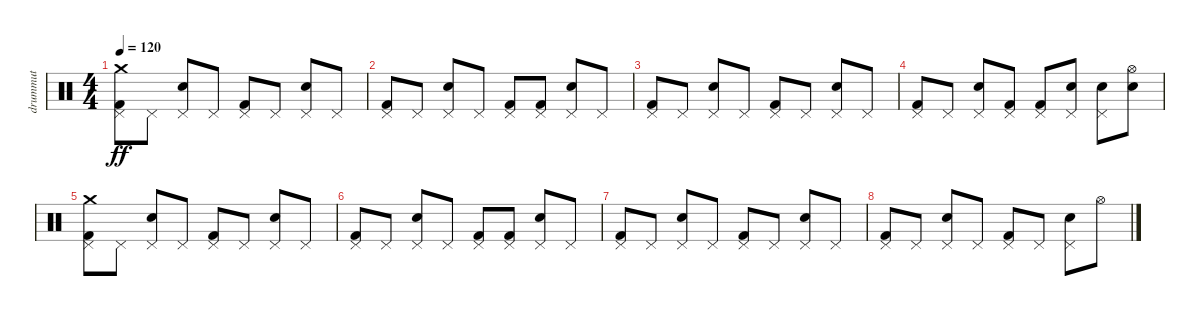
\track ("drummut" "drummut") {instrument percussion}
\staff {score}
\articulation defaults
\ts (4 4)
\tempo 120
\clef neutral
\ks c
("Kick (hit) 2" "Pedal Hi-Hat (hit)" "Crash medium (hit)").8{dy ff} "Pedal Hi-Hat (hit)".8 ("Electric Snare (hit)" "Pedal Hi-Hat (hit)").8 "Pedal Hi-Hat (hit)".8 ("Kick (hit) 2" "Pedal Hi-Hat (hit)").8 "Pedal Hi-Hat (hit)".8 ("Electric Snare (hit)" "Pedal Hi-Hat (hit)").8 "Pedal Hi-Hat (hit)".8 |
("Kick (hit) 2" "Pedal Hi-Hat (hit)").8 "Pedal Hi-Hat (hit)".8 ("Electric Snare (hit)" "Pedal Hi-Hat (hit)").8 "Pedal Hi-Hat (hit)".8 ("Kick (hit) 2" "Pedal Hi-Hat (hit)").8 ("Kick (hit) 2" "Pedal Hi-Hat (hit)").8 ("Electric Snare (hit)" "Pedal Hi-Hat (hit)").8 "Pedal Hi-Hat (hit)".8 |
("Kick (hit) 2" "Pedal Hi-Hat (hit)").8 "Pedal Hi-Hat (hit)".8 ("Electric Snare (hit)" "Pedal Hi-Hat (hit)").8 "Pedal Hi-Hat (hit)".8 ("Kick (hit) 2" "Pedal Hi-Hat (hit)").8 "Pedal Hi-Hat (hit)".8 ("Electric Snare (hit)" "Pedal Hi-Hat (hit)").8 "Pedal Hi-Hat (hit)".8 |
("Kick (hit) 2" "Pedal Hi-Hat (hit)").8 "Pedal Hi-Hat (hit)".8 ("Electric Snare (hit)" "Pedal Hi-Hat (hit)").8 ("Kick (hit) 2" "Pedal Hi-Hat (hit)").8 ("Kick (hit) 2" "Pedal Hi-Hat (hit)").8 ("Electric Snare (hit)" "Pedal Hi-Hat (hit)").8 ("Electric Snare (hit)" "Pedal Hi-Hat (hit)").8 ("Electric Snare (hit)" "Hi-Hat (open)").8 |
("Kick (hit) 2" "Pedal Hi-Hat (hit)" "Crash medium (hit)").8 "Pedal Hi-Hat (hit)".8 ("Electric Snare (hit)" "Pedal Hi-Hat (hit)").8 "Pedal Hi-Hat (hit)".8 ("Kick (hit) 2" "Pedal Hi-Hat (hit)").8 "Pedal Hi-Hat (hit)".8 ("Electric Snare (hit)" "Pedal Hi-Hat (hit)").8 "Pedal Hi-Hat (hit)".8 |
("Kick (hit) 2" "Pedal Hi-Hat (hit)").8 "Pedal Hi-Hat (hit)".8 ("Electric Snare (hit)" "Pedal Hi-Hat (hit)").8 "Pedal Hi-Hat (hit)".8 ("Kick (hit) 2" "Pedal Hi-Hat (hit)").8 ("Kick (hit) 2" "Pedal Hi-Hat (hit)").8 ("Electric Snare (hit)" "Pedal Hi-Hat (hit)").8 "Pedal Hi-Hat (hit)".8 |
("Kick (hit) 2" "Pedal Hi-Hat (hit)").8 "Pedal Hi-Hat (hit)".8 ("Electric Snare (hit)" "Pedal Hi-Hat (hit)").8 "Pedal Hi-Hat (hit)".8 ("Kick (hit) 2" "Pedal Hi-Hat (hit)").8 "Pedal Hi-Hat (hit)".8 ("Electric Snare (hit)" "Pedal Hi-Hat (hit)").8 "Pedal Hi-Hat (hit)".8 |
("Kick (hit) 2" "Pedal Hi-Hat (hit)").8 "Pedal Hi-Hat (hit)".8 ("Electric Snare (hit)" "Pedal Hi-Hat (hit)").8 "Pedal Hi-Hat (hit)".8 ("Kick (hit) 2" "Pedal Hi-Hat (hit)").8 "Pedal Hi-Hat (hit)".8 ("Electric Snare (hit)" "Pedal Hi-Hat (hit)").8 "Hi-Hat (open)".8
